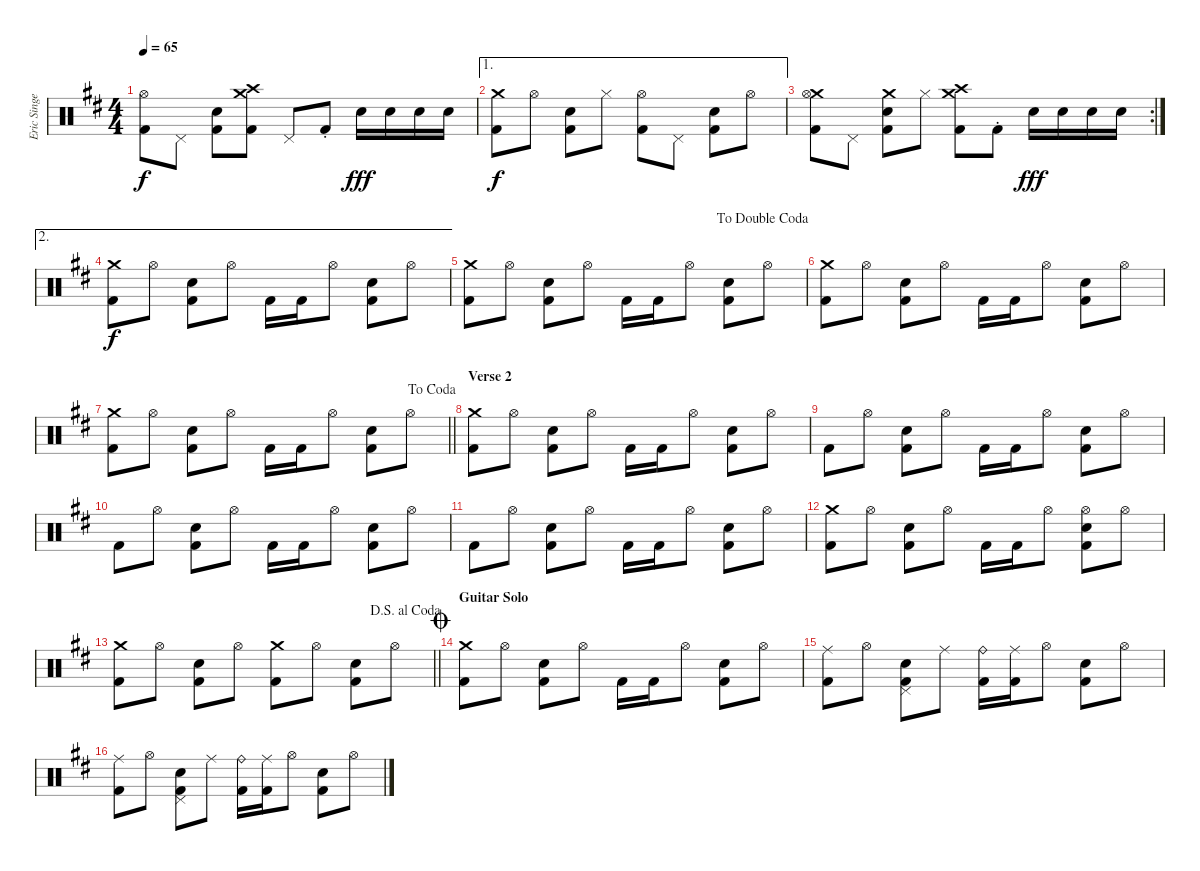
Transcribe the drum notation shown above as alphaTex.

\track ("Eric Singer" "Eric Singe") {instrument percussion}
\staff {score}
\articulation defaults
\ts (4 4)
\tempo 65
\clef neutral
\ks d
("Hi-Hat (open)" "Kick (hit) 2").8{dy f} "Pedal Hi-Hat (hit)".8 ("Snare (hit) 2" "Kick (hit) 2").8 ("Crash medium (hit)" "Crash high (hit)" "Kick (hit) 2").8 "Pedal Hi-Hat (hit)".8 "Kick (hit) 2"{st}.8 "Snare (hit) 2".16{dy fff} "Snare (hit) 2".16 "Snare (hit) 2".16 "Snare (hit) 2".16 |
\ae 1
("Crash medium (hit)" "Kick (hit) 2").8{dy f} "Hi-Hat (open)".8 ("Snare (hit) 2" "Kick (hit) 2").8 "Hi-Hat (closed)".8 ("Hi-Hat (open)" "Kick (hit) 2").8 "Pedal Hi-Hat (hit)".8 ("Snare (hit) 2" "Kick (hit) 2").8 "Hi-Hat (open)".8 |
\rc 2
("Crash medium (hit)" "Hi-Hat (open)" "Kick (hit) 2").8 "Pedal Hi-Hat (hit)".8 ("Crash medium (hit)" "Snare (hit) 2" "Kick (hit) 2").8 "Hi-Hat (closed)".8 ("Crash medium (hit)" "Crash high (hit)" "Kick (hit) 2").8 "Kick (hit) 2"{st}.8 "Snare (hit) 2".16{dy fff} "Snare (hit) 2".16 "Snare (hit) 2".16 "Snare (hit) 2".16 |
\ae 2
("Crash medium (hit)" "Kick (hit) 2").8{dy f} "Hi-Hat (open)".8 ("Snare (hit) 2" "Kick (hit) 2").8 "Hi-Hat (open)".8 "Kick (hit) 2".16 "Kick (hit) 2".16 "Hi-Hat (open)".8 ("Snare (hit) 2" "Kick (hit) 2").8 "Hi-Hat (open)".8 |
\jump dadoublecoda
("Crash medium (hit)" "Kick (hit) 2").8 "Hi-Hat (open)".8 ("Snare (hit) 2" "Kick (hit) 2").8 "Hi-Hat (open)".8 "Kick (hit) 2".16 "Kick (hit) 2".16 "Hi-Hat (open)".8 ("Snare (hit) 2" "Kick (hit) 2").8 "Hi-Hat (open)".8 |
("Crash medium (hit)" "Kick (hit) 2").8 "Hi-Hat (open)".8 ("Snare (hit) 2" "Kick (hit) 2").8 "Hi-Hat (open)".8 "Kick (hit) 2".16 "Kick (hit) 2".16 "Hi-Hat (open)".8 ("Snare (hit) 2" "Kick (hit) 2").8 "Hi-Hat (open)".8 |
\jump dacoda
\barLineRight lightlight
("Crash medium (hit)" "Kick (hit) 2").8 "Hi-Hat (open)".8 ("Snare (hit) 2" "Kick (hit) 2").8 "Hi-Hat (open)".8 "Kick (hit) 2".16 "Kick (hit) 2".16 "Hi-Hat (open)".8 ("Snare (hit) 2" "Kick (hit) 2").8 "Hi-Hat (open)".8 |
\section ("" "Verse 2")
("Crash medium (hit)" "Kick (hit) 2").8 "Hi-Hat (open)".8 ("Snare (hit) 2" "Kick (hit) 2").8 "Hi-Hat (open)".8 "Kick (hit) 2".16 "Kick (hit) 2".16 "Hi-Hat (open)".8 ("Snare (hit) 2" "Kick (hit) 2").8 "Hi-Hat (open)".8 |
"Kick (hit) 2".8 "Hi-Hat (open)".8 ("Snare (hit) 2" "Kick (hit) 2").8 "Hi-Hat (open)".8 "Kick (hit) 2".16 "Kick (hit) 2".16 "Hi-Hat (open)".8 ("Snare (hit) 2" "Kick (hit) 2").8 "Hi-Hat (open)".8 |
"Kick (hit) 2".8 "Hi-Hat (open)".8 ("Snare (hit) 2" "Kick (hit) 2").8 "Hi-Hat (open)".8 "Kick (hit) 2".16 "Kick (hit) 2".16 "Hi-Hat (open)".8 ("Snare (hit) 2" "Kick (hit) 2").8 "Hi-Hat (open)".8 |
"Kick (hit) 2".8 "Hi-Hat (open)".8 ("Snare (hit) 2" "Kick (hit) 2").8 "Hi-Hat (open)".8 "Kick (hit) 2".16 "Kick (hit) 2".16 "Hi-Hat (open)".8 ("Snare (hit) 2" "Kick (hit) 2").8 "Hi-Hat (open)".8 |
("Crash medium (hit)" "Kick (hit) 2").8 "Hi-Hat (open)".8 ("Snare (hit) 2" "Kick (hit) 2").8 "Hi-Hat (open)".8 "Kick (hit) 2".16 "Kick (hit) 2".16 "Hi-Hat (open)".8 ("Hi-Hat (open)" "Snare (hit) 2" "Kick (hit) 2").8 "Hi-Hat (open)".8 |
\jump dalsegnoalcoda
\barLineRight lightlight
("Crash medium (hit)" "Kick (hit) 2").8 "Hi-Hat (open)".8 ("Snare (hit) 2" "Kick (hit) 2").8 "Hi-Hat (open)".8 ("Crash medium (hit)" "Kick (hit) 2").8 "Hi-Hat (open)".8 ("Snare (hit) 2" "Kick (hit) 2").8 "Hi-Hat (open)".8 |
\section ("" "Guitar Solo")
\jump coda
("Crash medium (hit)" "Kick (hit) 2").8 "Hi-Hat (open)".8 ("Snare (hit) 2" "Kick (hit) 2").8 "Hi-Hat (open)".8 "Kick (hit) 2".16 "Kick (hit) 2".16 "Hi-Hat (open)".8 ("Snare (hit) 2" "Kick (hit) 2").8 "Hi-Hat (open)".8 |
("Ride (middle)" "Kick (hit) 2").8 "Hi-Hat (open)".8 ("Pedal Hi-Hat (hit)" "Snare (hit) 2" "Kick (hit) 2").8 "Ride (middle)".8 ("Ride (bell)" "Kick (hit) 2").16 ("Ride (middle)" "Kick (hit) 2").16 "Hi-Hat (open)".8 ("Snare (hit) 2" "Kick (hit) 2").8 "Hi-Hat (open)".8 |
("Ride (middle)" "Kick (hit) 2").8 "Hi-Hat (open)".8 ("Pedal Hi-Hat (hit)" "Snare (hit) 2" "Kick (hit) 2").8 "Ride (middle)".8 ("Ride (bell)" "Kick (hit) 2").16 ("Ride (middle)" "Kick (hit) 2").16 "Hi-Hat (open)".8 ("Snare (hit) 2" "Kick (hit) 2").8 "Hi-Hat (open)".8
